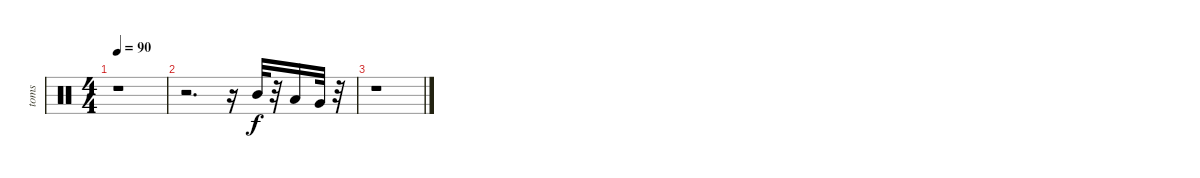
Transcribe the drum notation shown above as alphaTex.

\track ("toms" "toms") {instrument percussion}
\staff {score}
\articulation defaults
\ts (4 4)
\tempo 90
\clef neutral
\ks c
r.1{dy f} |
r.2{d} r.16 "Mid Tom (hit)".32 r.32 "Low Tom (hit)".16 "Very Low Tom (hit)".32 r.32 |
r.1
